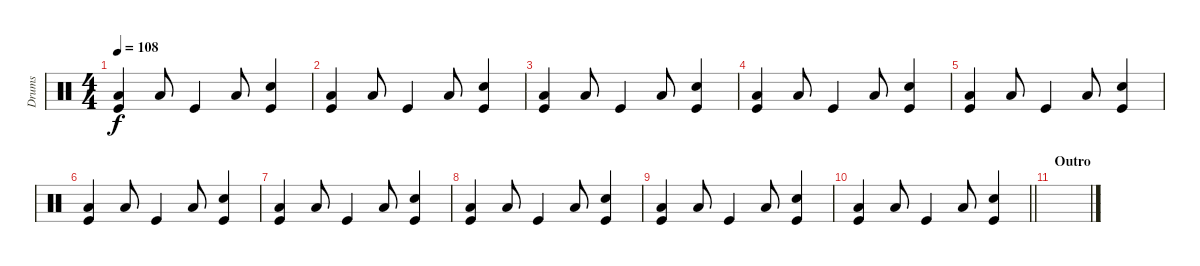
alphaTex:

\track ("Drums" "Drums") {instrument percussion}
\staff {score}
\articulation defaults
\ts (4 4)
\tempo 108
\clef neutral
\ks c
("Low Floor Tom (hit)" "Kick (hit)").4{dy f} "Low Floor Tom (hit)".8 "Kick (hit)".4 "Low Floor Tom (hit)".8 ("Snare (hit) 2" "Kick (hit)").4 |
("Low Floor Tom (hit)" "Kick (hit)").4 "Low Floor Tom (hit)".8 "Kick (hit)".4 "Low Floor Tom (hit)".8 ("Snare (hit) 2" "Kick (hit)").4 |
("Low Floor Tom (hit)" "Kick (hit)").4 "Low Floor Tom (hit)".8 "Kick (hit)".4 "Low Floor Tom (hit)".8 ("Snare (hit) 2" "Kick (hit)").4 |
("Low Floor Tom (hit)" "Kick (hit)").4 "Low Floor Tom (hit)".8 "Kick (hit)".4 "Low Floor Tom (hit)".8 ("Snare (hit) 2" "Kick (hit)").4 |
("Low Floor Tom (hit)" "Kick (hit)").4 "Low Floor Tom (hit)".8 "Kick (hit)".4 "Low Floor Tom (hit)".8 ("Snare (hit) 2" "Kick (hit)").4 |
("Low Floor Tom (hit)" "Kick (hit)").4 "Low Floor Tom (hit)".8 "Kick (hit)".4 "Low Floor Tom (hit)".8 ("Snare (hit) 2" "Kick (hit)").4 |
("Low Floor Tom (hit)" "Kick (hit)").4 "Low Floor Tom (hit)".8 "Kick (hit)".4 "Low Floor Tom (hit)".8 ("Snare (hit) 2" "Kick (hit)").4 |
("Low Floor Tom (hit)" "Kick (hit)").4 "Low Floor Tom (hit)".8 "Kick (hit)".4 "Low Floor Tom (hit)".8 ("Snare (hit) 2" "Kick (hit)").4 |
("Low Floor Tom (hit)" "Kick (hit)").4 "Low Floor Tom (hit)".8 "Kick (hit)".4 "Low Floor Tom (hit)".8 ("Snare (hit) 2" "Kick (hit)").4 |
\barLineRight lightlight
("Low Floor Tom (hit)" "Kick (hit)").4 "Low Floor Tom (hit)".8 "Kick (hit)".4 "Low Floor Tom (hit)".8 ("Snare (hit) 2" "Kick (hit)").4 |
\section ("" "Outro")
